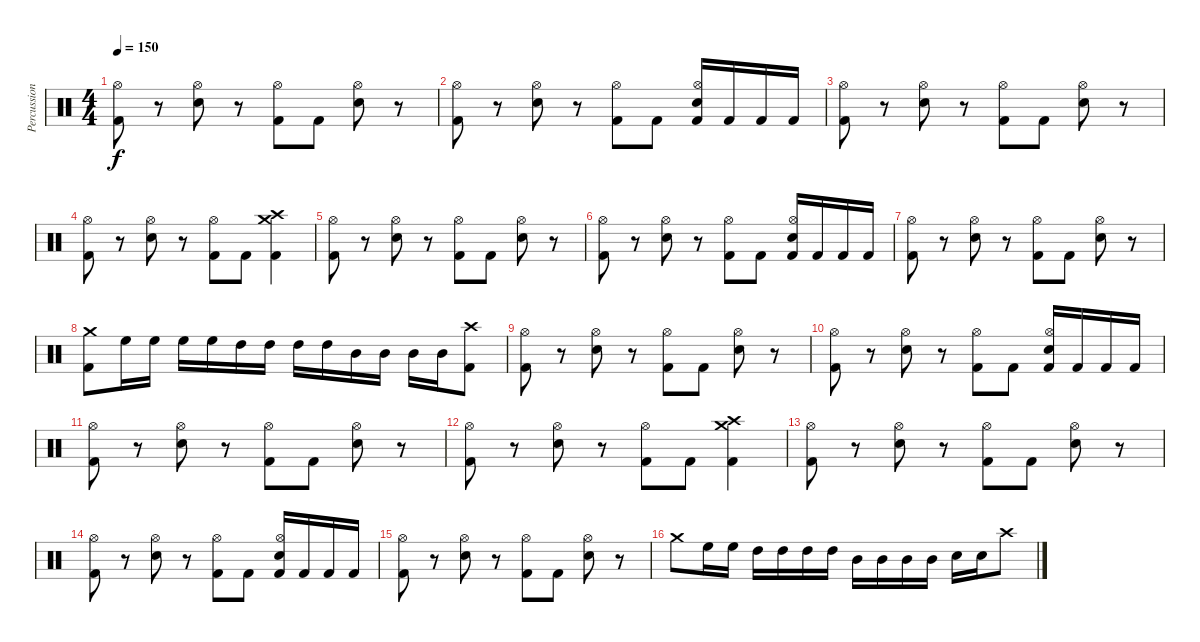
\track ("Percussion" "Percussion") {instrument percussion}
\staff {score}
\articulation defaults
\ts (4 4)
\tempo 150
\clef neutral
\ks c
("Kick (hit) 2" "Hi-Hat (open)").8{dy f} r.8 ("Snare (hit) 2" "Hi-Hat (open)").8 r.8 ("Kick (hit) 2" "Hi-Hat (open)").8 "Kick (hit) 2".8 ("Snare (hit) 2" "Hi-Hat (open)").8 r.8 |
("Kick (hit) 2" "Hi-Hat (open)").8 r.8 ("Snare (hit) 2" "Hi-Hat (open)").8 r.8 ("Kick (hit) 2" "Hi-Hat (open)").8 "Kick (hit) 2".8 ("Kick (hit) 2" "Snare (hit) 2" "Hi-Hat (open)").16 "Kick (hit) 2".16 "Kick (hit) 2".16 "Kick (hit) 2".16 |
("Kick (hit) 2" "Hi-Hat (open)").8 r.8 ("Snare (hit) 2" "Hi-Hat (open)").8 r.8 ("Kick (hit) 2" "Hi-Hat (open)").8 "Kick (hit) 2".8 ("Snare (hit) 2" "Hi-Hat (open)").8 r.8 |
("Kick (hit) 2" "Hi-Hat (open)").8 r.8 ("Snare (hit) 2" "Hi-Hat (open)").8 r.8 ("Kick (hit) 2" "Hi-Hat (open)").8 "Kick (hit) 2".8 ("Kick (hit) 2" "Crash high (hit)" "Crash medium (hit)").4 |
("Kick (hit) 2" "Hi-Hat (open)").8 r.8 ("Snare (hit) 2" "Hi-Hat (open)").8 r.8 ("Kick (hit) 2" "Hi-Hat (open)").8 "Kick (hit) 2".8 ("Snare (hit) 2" "Hi-Hat (open)").8 r.8 |
("Kick (hit) 2" "Hi-Hat (open)").8 r.8 ("Snare (hit) 2" "Hi-Hat (open)").8 r.8 ("Kick (hit) 2" "Hi-Hat (open)").8 "Kick (hit) 2".8 ("Kick (hit) 2" "Snare (hit) 2" "Hi-Hat (open)").16 "Kick (hit) 2".16 "Kick (hit) 2".16 "Kick (hit) 2".16 |
("Kick (hit) 2" "Hi-Hat (open)").8 r.8 ("Snare (hit) 2" "Hi-Hat (open)").8 r.8 ("Kick (hit) 2" "Hi-Hat (open)").8 "Kick (hit) 2".8 ("Snare (hit) 2" "Hi-Hat (open)").8 r.8 |
("Kick (hit) 2" "Crash medium (hit)").8 "High Floor Tom (hit)".16 "High Floor Tom (hit)".16 "High Floor Tom (hit)".16 "High Floor Tom (hit)".16 "High Tom (hit)".16 "High Tom (hit)".16 "High Tom (hit)".16 "High Tom (hit)".16 "Mid Tom (hit)".16 "Mid Tom (hit)".16 "Mid Tom (hit)".16 "Mid Tom (hit)".16 ("Kick (hit) 2" "Crash high (hit)").8 |
("Kick (hit) 2" "Hi-Hat (open)").8 r.8 ("Snare (hit) 2" "Hi-Hat (open)").8 r.8 ("Kick (hit) 2" "Hi-Hat (open)").8 "Kick (hit) 2".8 ("Snare (hit) 2" "Hi-Hat (open)").8 r.8 |
("Kick (hit) 2" "Hi-Hat (open)").8 r.8 ("Snare (hit) 2" "Hi-Hat (open)").8 r.8 ("Kick (hit) 2" "Hi-Hat (open)").8 "Kick (hit) 2".8 ("Kick (hit) 2" "Snare (hit) 2" "Hi-Hat (open)").16 "Kick (hit) 2".16 "Kick (hit) 2".16 "Kick (hit) 2".16 |
("Kick (hit) 2" "Hi-Hat (open)").8 r.8 ("Snare (hit) 2" "Hi-Hat (open)").8 r.8 ("Kick (hit) 2" "Hi-Hat (open)").8 "Kick (hit) 2".8 ("Snare (hit) 2" "Hi-Hat (open)").8 r.8 |
("Kick (hit) 2" "Hi-Hat (open)").8 r.8 ("Snare (hit) 2" "Hi-Hat (open)").8 r.8 ("Kick (hit) 2" "Hi-Hat (open)").8 "Kick (hit) 2".8 ("Kick (hit) 2" "Crash high (hit)" "Crash medium (hit)").4 |
("Kick (hit) 2" "Hi-Hat (open)").8 r.8 ("Snare (hit) 2" "Hi-Hat (open)").8 r.8 ("Kick (hit) 2" "Hi-Hat (open)").8 "Kick (hit) 2".8 ("Snare (hit) 2" "Hi-Hat (open)").8 r.8 |
("Kick (hit) 2" "Hi-Hat (open)").8 r.8 ("Snare (hit) 2" "Hi-Hat (open)").8 r.8 ("Kick (hit) 2" "Hi-Hat (open)").8 "Kick (hit) 2".8 ("Kick (hit) 2" "Snare (hit) 2" "Hi-Hat (open)").16 "Kick (hit) 2".16 "Kick (hit) 2".16 "Kick (hit) 2".16 |
("Kick (hit) 2" "Hi-Hat (open)").8 r.8 ("Snare (hit) 2" "Hi-Hat (open)").8 r.8 ("Kick (hit) 2" "Hi-Hat (open)").8 "Kick (hit) 2".8 ("Snare (hit) 2" "Hi-Hat (open)").8 r.8 |
"Crash medium (hit)".8 "High Floor Tom (hit)".16 "High Floor Tom (hit)".16 "High Tom (hit)".16 "High Tom (hit)".16 "High Tom (hit)".16 "High Tom (hit)".16 "Mid Tom (hit)".16 "Mid Tom (hit)".16 "Mid Tom (hit)".16 "Mid Tom (hit)".16 "Snare (hit) 2".16 "Snare (hit) 2".16 "Crash high (hit)".8
